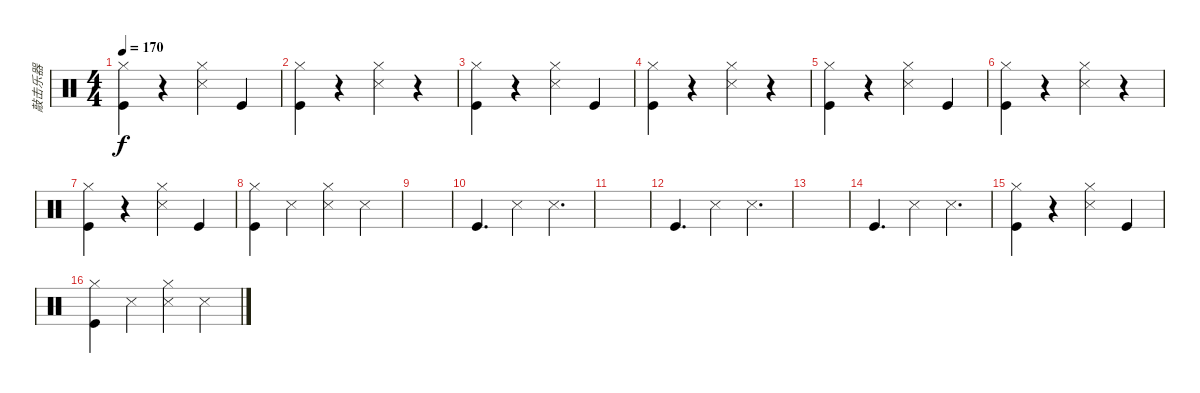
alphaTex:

\track ("敲击乐器" "敲击乐器") {instrument percussion}
\staff {score}
\articulation defaults
\ts (4 4)
\tempo 170
\clef neutral
\ks c
("Hi-Hat (closed)" "Kick (hit)").4{dy f} r.4 ("Hi-Hat (closed)" "Snare (side stick) 3").4 "Kick (hit)".4 |
("Hi-Hat (closed)" "Kick (hit)").4 r.4 ("Hi-Hat (closed)" "Snare (side stick) 3").4 r.4 |
("Hi-Hat (closed)" "Kick (hit)").4 r.4 ("Hi-Hat (closed)" "Snare (side stick) 3").4 "Kick (hit)".4 |
("Hi-Hat (closed)" "Kick (hit)").4 r.4 ("Hi-Hat (closed)" "Snare (side stick) 3").4 r.4 |
("Hi-Hat (closed)" "Kick (hit)").4 r.4 ("Hi-Hat (closed)" "Snare (side stick) 3").4 "Kick (hit)".4 |
("Hi-Hat (closed)" "Kick (hit)").4 r.4 ("Hi-Hat (closed)" "Snare (side stick) 3").4 r.4 |
("Hi-Hat (closed)" "Kick (hit)").4 r.4 ("Hi-Hat (closed)" "Snare (side stick) 3").4 "Kick (hit)".4 |
("Hi-Hat (closed)" "Kick (hit)").4 "Snare (side stick) 3".4 ("Hi-Hat (closed)" "Snare (side stick) 3").4 "Snare (side stick) 3".4 |
|
"Kick (hit)".4{d} "Snare (side stick) 3".4 "Snare (side stick) 3".4{d} |
|
"Kick (hit)".4{d} "Snare (side stick) 3".4 "Snare (side stick) 3".4{d} |
|
"Kick (hit)".4{d} "Snare (side stick) 3".4 "Snare (side stick) 3".4{d} |
("Hi-Hat (closed)" "Kick (hit)").4 r.4 ("Hi-Hat (closed)" "Snare (side stick) 3").4 "Kick (hit)".4 |
("Hi-Hat (closed)" "Kick (hit)").4 "Snare (side stick) 3".4 ("Hi-Hat (closed)" "Snare (side stick) 3").4 "Snare (side stick) 3".4
